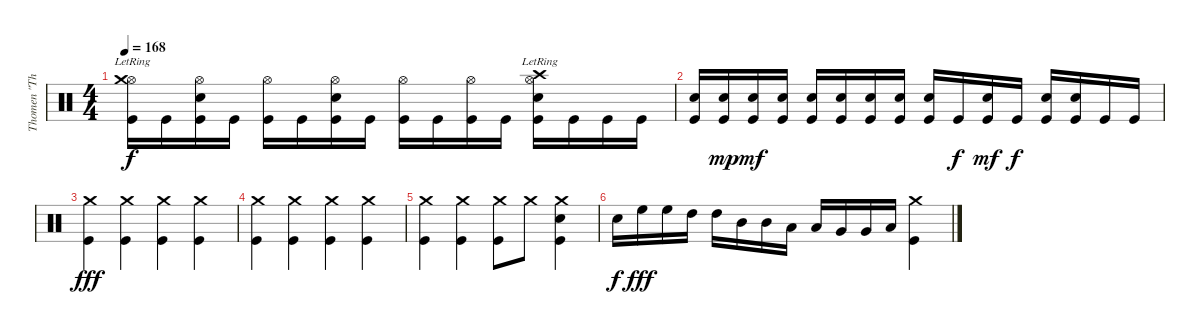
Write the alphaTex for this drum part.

\track ("Thomen \"The Omen\" Stauch" "Thomen \"Th") {instrument percussion}
\staff {score}
\articulation defaults
\ts (4 4)
\tempo 168
\clef neutral
\ks c
("Hi-Hat (open)" "Crash medium (hit)"{lr} "Kick (hit)").16{dy f} "Kick (hit)".16 ("Hi-Hat (open)" "Snare (hit) 2" "Kick (hit)").16 "Kick (hit)".16 ("Hi-Hat (open)" "Kick (hit)").16 "Kick (hit)".16 ("Hi-Hat (open)" "Snare (hit) 2" "Kick (hit)").16 "Kick (hit)".16 ("Hi-Hat (open)" "Kick (hit)").16 "Kick (hit)".16 ("Hi-Hat (open)" "Kick (hit)").16 "Kick (hit)".16 ("Hi-Hat (open)" "Snare (hit) 2" "Crash high (hit)"{lr} "Kick (hit)").16 "Kick (hit)".16 "Kick (hit)".16 "Kick (hit)".16 |
("Snare (hit) 2" "Kick (hit)").16 ("Snare (hit) 2" "Kick (hit)").16{dy mp} ("Snare (hit) 2" "Kick (hit)").16{dy mf} ("Snare (hit) 2" "Kick (hit)").16 ("Snare (hit) 2" "Kick (hit)").16 ("Snare (hit) 2" "Kick (hit)").16 ("Snare (hit) 2" "Kick (hit)").16 ("Snare (hit) 2" "Kick (hit)").16 ("Snare (hit) 2" "Kick (hit)").16 "Kick (hit)".16{dy f} ("Snare (hit) 2" "Kick (hit)").16{dy mf} "Kick (hit)".16{dy f} ("Snare (hit) 2" "Kick (hit)").16 ("Snare (hit) 2" "Kick (hit)").16 "Kick (hit)".16 "Kick (hit)".16 |
("Crash medium (hit)" "Kick (hit)").4{dy fff} ("Crash medium (hit)" "Kick (hit)").4 ("Crash medium (hit)" "Kick (hit)").4 ("Crash medium (hit)" "Kick (hit)").4 |
("Crash medium (hit)" "Kick (hit)").4 ("Crash medium (hit)" "Kick (hit)").4 ("Crash medium (hit)" "Kick (hit)").4 ("Crash medium (hit)" "Kick (hit)").4 |
("Crash medium (hit)" "Kick (hit)").4 ("Crash medium (hit)" "Kick (hit)").4 ("Crash medium (hit)" "Kick (hit)").8 "Crash medium (hit)".8 ("Crash medium (hit)" "Snare (hit) 2" "Kick (hit)").4 |
"Snare (hit) 2".16{dy f} "High Floor Tom (hit)".16{dy fff} "High Floor Tom (hit)".16 "High Tom (hit)".16 "High Tom (hit)".16 "Mid Tom (hit)".16 "Mid Tom (hit)".16 "Low Tom (hit)".16 "Low Tom (hit)".16 "Very Low Tom (hit)".16 "Very Low Tom (hit)".16 "Low Tom (hit)".16 ("Crash medium (hit)" "Kick (hit)").4
